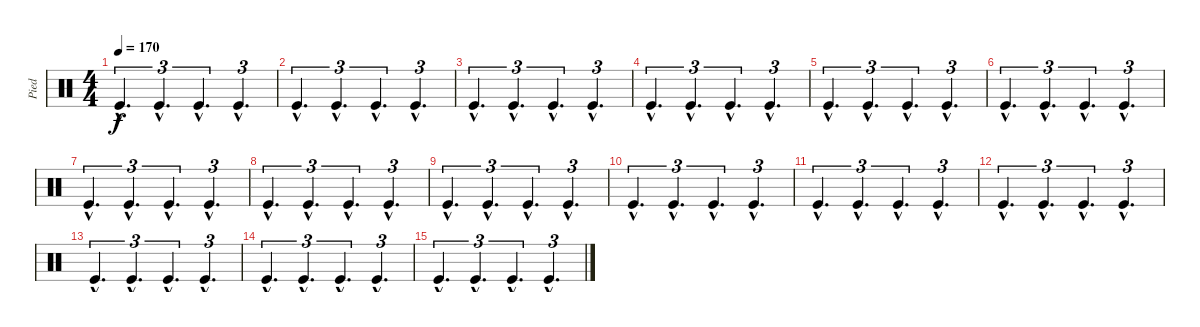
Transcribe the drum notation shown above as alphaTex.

\track ("Pied" "Pied") {instrument percussion}
\staff {score}
\articulation defaults
\ts (4 4)
\tempo 170
\clef neutral
\ks c "Kick (hit)"{hac}.4{d tu (3 2) dy f} "Kick (hit)"{hac}.4{d tu (3 2)} "Kick (hit)"{hac}.4{d tu (3 2)} "Kick (hit)"{hac}.4{d tu (3 2)}
|
"Kick (hit)"{hac}.4{d tu (3 2)} "Kick (hit)"{hac}.4{d tu (3 2)} "Kick (hit)"{hac}.4{d tu (3 2)} "Kick (hit)"{hac}.4{d tu (3 2)} |
"Kick (hit)"{hac}.4{d tu (3 2)} "Kick (hit)"{hac}.4{d tu (3 2)} "Kick (hit)"{hac}.4{d tu (3 2)} "Kick (hit)"{hac}.4{d tu (3 2)} |
"Kick (hit)"{hac}.4{d tu (3 2)} "Kick (hit)"{hac}.4{d tu (3 2)} "Kick (hit)"{hac}.4{d tu (3 2)} "Kick (hit)"{hac}.4{d tu (3 2)} |
"Kick (hit)"{hac}.4{d tu (3 2)} "Kick (hit)"{hac}.4{d tu (3 2)} "Kick (hit)"{hac}.4{d tu (3 2)} "Kick (hit)"{hac}.4{d tu (3 2)} |
"Kick (hit)"{hac}.4{d tu (3 2)} "Kick (hit)"{hac}.4{d tu (3 2)} "Kick (hit)"{hac}.4{d tu (3 2)} "Kick (hit)"{hac}.4{d tu (3 2)} |
"Kick (hit)"{hac}.4{d tu (3 2)} "Kick (hit)"{hac}.4{d tu (3 2)} "Kick (hit)"{hac}.4{d tu (3 2)} "Kick (hit)"{hac}.4{d tu (3 2)} |
"Kick (hit)"{hac}.4{d tu (3 2)} "Kick (hit)"{hac}.4{d tu (3 2)} "Kick (hit)"{hac}.4{d tu (3 2)} "Kick (hit)"{hac}.4{d tu (3 2)} |
"Kick (hit)"{hac}.4{d tu (3 2)} "Kick (hit)"{hac}.4{d tu (3 2)} "Kick (hit)"{hac}.4{d tu (3 2)} "Kick (hit)"{hac}.4{d tu (3 2)} |
"Kick (hit)"{hac}.4{d tu (3 2)} "Kick (hit)"{hac}.4{d tu (3 2)} "Kick (hit)"{hac}.4{d tu (3 2)} "Kick (hit)"{hac}.4{d tu (3 2)} |
"Kick (hit)"{hac}.4{d tu (3 2)} "Kick (hit)"{hac}.4{d tu (3 2)} "Kick (hit)"{hac}.4{d tu (3 2)} "Kick (hit)"{hac}.4{d tu (3 2)} |
"Kick (hit)"{hac}.4{d tu (3 2)} "Kick (hit)"{hac}.4{d tu (3 2)} "Kick (hit)"{hac}.4{d tu (3 2)} "Kick (hit)"{hac}.4{d tu (3 2)} |
"Kick (hit)"{hac}.4{d tu (3 2)} "Kick (hit)"{hac}.4{d tu (3 2)} "Kick (hit)"{hac}.4{d tu (3 2)} "Kick (hit)"{hac}.4{d tu (3 2)} |
"Kick (hit)"{hac}.4{d tu (3 2)} "Kick (hit)"{hac}.4{d tu (3 2)} "Kick (hit)"{hac}.4{d tu (3 2)} "Kick (hit)"{hac}.4{d tu (3 2)} |
"Kick (hit)"{hac}.4{d tu (3 2)} "Kick (hit)"{hac}.4{d tu (3 2)} "Kick (hit)"{hac}.4{d tu (3 2)} "Kick (hit)"{hac}.4{d tu (3 2)}
